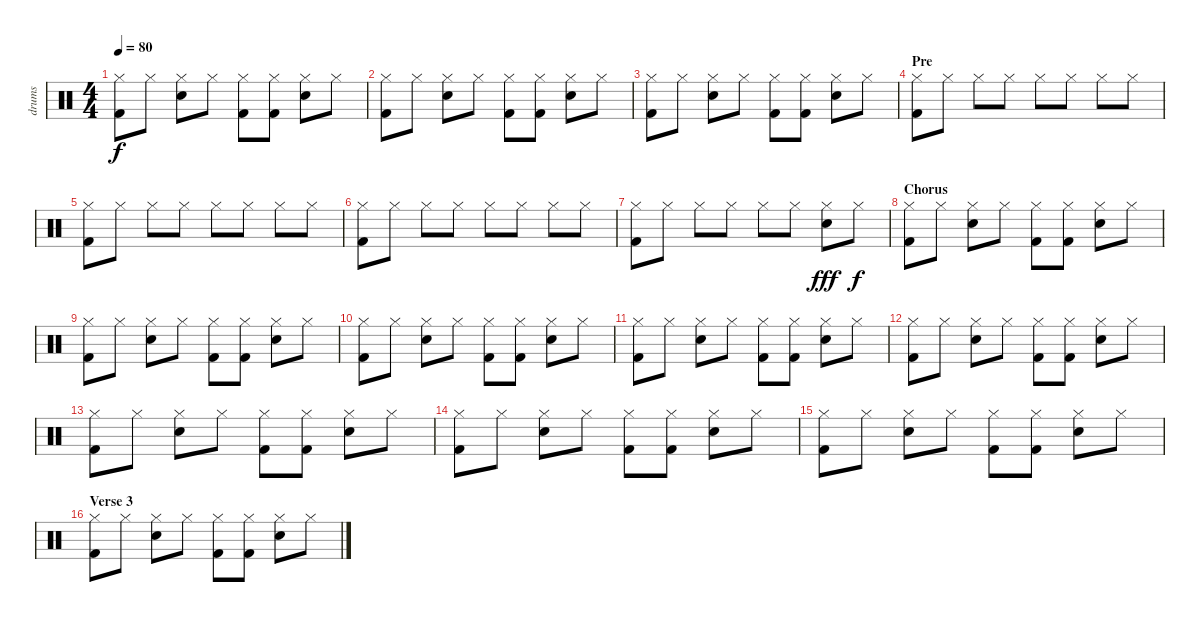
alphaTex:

\track ("drums" "drums") {instrument percussion}
\staff {score}
\articulation defaults
\ts (4 4)
\tempo 80
\clef neutral
\ks c
("Hi-Hat (closed)" "Kick (hit) 2").8{dy f} "Hi-Hat (closed)".8 ("Hi-Hat (closed)" "Electric Snare (hit)").8 "Hi-Hat (closed)".8 ("Hi-Hat (closed)" "Kick (hit) 2").8 ("Hi-Hat (closed)" "Kick (hit) 2").8 ("Hi-Hat (closed)" "Electric Snare (hit)").8 "Hi-Hat (closed)".8 |
("Hi-Hat (closed)" "Kick (hit) 2").8 "Hi-Hat (closed)".8 ("Hi-Hat (closed)" "Electric Snare (hit)").8 "Hi-Hat (closed)".8 ("Hi-Hat (closed)" "Kick (hit) 2").8 ("Hi-Hat (closed)" "Kick (hit) 2").8 ("Hi-Hat (closed)" "Electric Snare (hit)").8 "Hi-Hat (closed)".8 |
("Hi-Hat (closed)" "Kick (hit) 2").8 "Hi-Hat (closed)".8 ("Hi-Hat (closed)" "Electric Snare (hit)").8 "Hi-Hat (closed)".8 ("Hi-Hat (closed)" "Kick (hit) 2").8 ("Hi-Hat (closed)" "Kick (hit) 2").8 ("Hi-Hat (closed)" "Electric Snare (hit)").8 "Hi-Hat (closed)".8 |
\section ("" "Pre")
("Hi-Hat (closed)" "Kick (hit) 2").8 "Hi-Hat (closed)".8 "Hi-Hat (closed)".8 "Hi-Hat (closed)".8 "Hi-Hat (closed)".8 "Hi-Hat (closed)".8 "Hi-Hat (closed)".8 "Hi-Hat (closed)".8 |
("Hi-Hat (closed)" "Kick (hit) 2").8 "Hi-Hat (closed)".8 "Hi-Hat (closed)".8 "Hi-Hat (closed)".8 "Hi-Hat (closed)".8 "Hi-Hat (closed)".8 "Hi-Hat (closed)".8 "Hi-Hat (closed)".8 |
("Hi-Hat (closed)" "Kick (hit) 2").8 "Hi-Hat (closed)".8 "Hi-Hat (closed)".8 "Hi-Hat (closed)".8 "Hi-Hat (closed)".8 "Hi-Hat (closed)".8 "Hi-Hat (closed)".8 "Hi-Hat (closed)".8 |
("Hi-Hat (closed)" "Kick (hit) 2").8 "Hi-Hat (closed)".8 "Hi-Hat (closed)".8 "Hi-Hat (closed)".8 "Hi-Hat (closed)".8 "Hi-Hat (closed)".8 ("Hi-Hat (closed)" "Electric Snare (hit)").8{dy fff} "Hi-Hat (closed)".8{dy f} |
\section ("" "Chorus")
("Hi-Hat (closed)" "Kick (hit) 2").8 "Hi-Hat (closed)".8 ("Hi-Hat (closed)" "Electric Snare (hit)").8 "Hi-Hat (closed)".8 ("Hi-Hat (closed)" "Kick (hit) 2").8 ("Hi-Hat (closed)" "Kick (hit) 2").8 ("Hi-Hat (closed)" "Electric Snare (hit)").8 "Hi-Hat (closed)".8 |
("Hi-Hat (closed)" "Kick (hit) 2").8 "Hi-Hat (closed)".8 ("Hi-Hat (closed)" "Electric Snare (hit)").8 "Hi-Hat (closed)".8 ("Hi-Hat (closed)" "Kick (hit) 2").8 ("Hi-Hat (closed)" "Kick (hit) 2").8 ("Hi-Hat (closed)" "Electric Snare (hit)").8 "Hi-Hat (closed)".8 |
("Hi-Hat (closed)" "Kick (hit) 2").8 "Hi-Hat (closed)".8 ("Hi-Hat (closed)" "Electric Snare (hit)").8 "Hi-Hat (closed)".8 ("Hi-Hat (closed)" "Kick (hit) 2").8 ("Hi-Hat (closed)" "Kick (hit) 2").8 ("Hi-Hat (closed)" "Electric Snare (hit)").8 "Hi-Hat (closed)".8 |
("Hi-Hat (closed)" "Kick (hit) 2").8 "Hi-Hat (closed)".8 ("Hi-Hat (closed)" "Electric Snare (hit)").8 "Hi-Hat (closed)".8 ("Hi-Hat (closed)" "Kick (hit) 2").8 ("Hi-Hat (closed)" "Kick (hit) 2").8 ("Hi-Hat (closed)" "Electric Snare (hit)").8 "Hi-Hat (closed)".8 |
("Hi-Hat (closed)" "Kick (hit) 2").8 "Hi-Hat (closed)".8 ("Hi-Hat (closed)" "Electric Snare (hit)").8 "Hi-Hat (closed)".8 ("Hi-Hat (closed)" "Kick (hit) 2").8 ("Hi-Hat (closed)" "Kick (hit) 2").8 ("Hi-Hat (closed)" "Electric Snare (hit)").8 "Hi-Hat (closed)".8 |
("Hi-Hat (closed)" "Kick (hit) 2").8 "Hi-Hat (closed)".8 ("Hi-Hat (closed)" "Electric Snare (hit)").8 "Hi-Hat (closed)".8 ("Hi-Hat (closed)" "Kick (hit) 2").8 ("Hi-Hat (closed)" "Kick (hit) 2").8 ("Hi-Hat (closed)" "Electric Snare (hit)").8 "Hi-Hat (closed)".8 |
("Hi-Hat (closed)" "Kick (hit) 2").8 "Hi-Hat (closed)".8 ("Hi-Hat (closed)" "Electric Snare (hit)").8 "Hi-Hat (closed)".8 ("Hi-Hat (closed)" "Kick (hit) 2").8 ("Hi-Hat (closed)" "Kick (hit) 2").8 ("Hi-Hat (closed)" "Electric Snare (hit)").8 "Hi-Hat (closed)".8 |
("Hi-Hat (closed)" "Kick (hit) 2").8 "Hi-Hat (closed)".8 ("Hi-Hat (closed)" "Electric Snare (hit)").8 "Hi-Hat (closed)".8 ("Hi-Hat (closed)" "Kick (hit) 2").8 ("Hi-Hat (closed)" "Kick (hit) 2").8 ("Hi-Hat (closed)" "Electric Snare (hit)").8 "Hi-Hat (closed)".8 |
\section ("" "Verse 3")
("Hi-Hat (closed)" "Kick (hit) 2").8 "Hi-Hat (closed)".8 ("Hi-Hat (closed)" "Electric Snare (hit)").8 "Hi-Hat (closed)".8 ("Hi-Hat (closed)" "Kick (hit) 2").8 ("Hi-Hat (closed)" "Kick (hit) 2").8 ("Hi-Hat (closed)" "Electric Snare (hit)").8 "Hi-Hat (closed)".8
